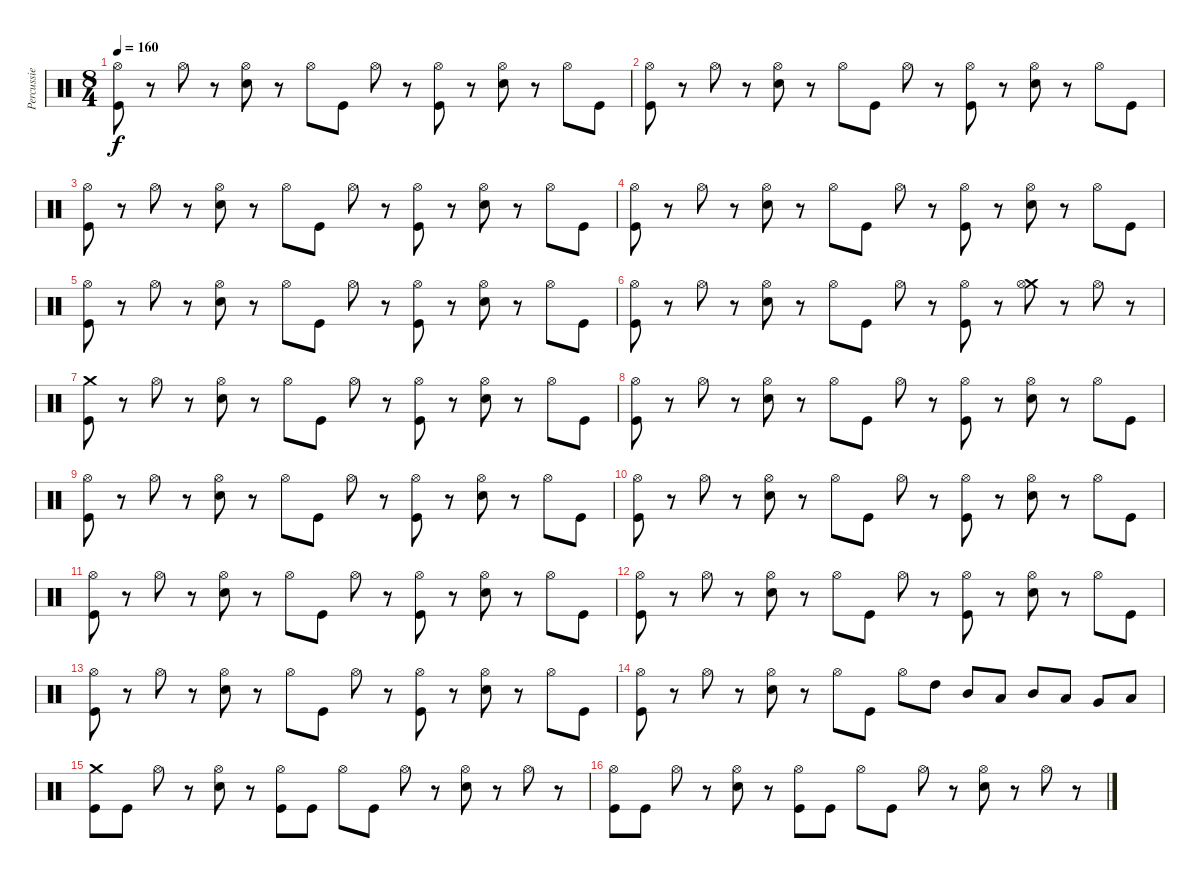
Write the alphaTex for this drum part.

\track ("Percussie" "Percussie") {instrument percussion}
\staff {score}
\articulation defaults
\ts (8 4)
\tempo 160
\clef neutral
\ks c
("Hi-Hat (open)" "Kick (hit)").8{dy f} r.8 "Hi-Hat (open)".8 r.8 ("Electric Snare (hit)" "Hi-Hat (open)").8 r.8 "Hi-Hat (open)".8 "Kick (hit)".8 "Hi-Hat (open)".8 r.8 ("Hi-Hat (open)" "Kick (hit)").8 r.8 ("Electric Snare (hit)" "Hi-Hat (open)").8 r.8 "Hi-Hat (open)".8 "Kick (hit)".8 |
("Hi-Hat (open)" "Kick (hit)").8 r.8 "Hi-Hat (open)".8 r.8 ("Electric Snare (hit)" "Hi-Hat (open)").8 r.8 "Hi-Hat (open)".8 "Kick (hit)".8 "Hi-Hat (open)".8 r.8 ("Hi-Hat (open)" "Kick (hit)").8 r.8 ("Electric Snare (hit)" "Hi-Hat (open)").8 r.8 "Hi-Hat (open)".8 "Kick (hit)".8 |
("Hi-Hat (open)" "Kick (hit)").8 r.8 "Hi-Hat (open)".8 r.8 ("Electric Snare (hit)" "Hi-Hat (open)").8 r.8 "Hi-Hat (open)".8 "Kick (hit)".8 "Hi-Hat (open)".8 r.8 ("Hi-Hat (open)" "Kick (hit)").8 r.8 ("Electric Snare (hit)" "Hi-Hat (open)").8 r.8 "Hi-Hat (open)".8 "Kick (hit)".8 |
("Hi-Hat (open)" "Kick (hit)").8 r.8 "Hi-Hat (open)".8 r.8 ("Electric Snare (hit)" "Hi-Hat (open)").8 r.8 "Hi-Hat (open)".8 "Kick (hit)".8 "Hi-Hat (open)".8 r.8 ("Hi-Hat (open)" "Kick (hit)").8 r.8 ("Electric Snare (hit)" "Hi-Hat (open)").8 r.8 "Hi-Hat (open)".8 "Kick (hit)".8 |
("Hi-Hat (open)" "Kick (hit)").8 r.8 "Hi-Hat (open)".8 r.8 ("Electric Snare (hit)" "Hi-Hat (open)").8 r.8 "Hi-Hat (open)".8 "Kick (hit)".8 "Hi-Hat (open)".8 r.8 ("Hi-Hat (open)" "Kick (hit)").8 r.8 ("Electric Snare (hit)" "Hi-Hat (open)").8 r.8 "Hi-Hat (open)".8 "Kick (hit)".8 |
("Hi-Hat (open)" "Kick (hit)").8 r.8 "Hi-Hat (open)".8 r.8 ("Electric Snare (hit)" "Hi-Hat (open)").8 r.8 "Hi-Hat (open)".8 "Kick (hit)".8 "Hi-Hat (open)".8 r.8 ("Hi-Hat (open)" "Kick (hit)").8 r.8 ("Crash medium (hit)" "Hi-Hat (open)").8 r.8 "Hi-Hat (open)".8 r.8 |
("Crash medium (hit)" "Kick (hit)").8 r.8 "Hi-Hat (open)".8 r.8 ("Electric Snare (hit)" "Hi-Hat (open)").8 r.8 "Hi-Hat (open)".8 "Kick (hit)".8 "Hi-Hat (open)".8 r.8 ("Hi-Hat (open)" "Kick (hit)").8 r.8 ("Electric Snare (hit)" "Hi-Hat (open)").8 r.8 "Hi-Hat (open)".8 "Kick (hit)".8 |
("Hi-Hat (open)" "Kick (hit)").8 r.8 "Hi-Hat (open)".8 r.8 ("Electric Snare (hit)" "Hi-Hat (open)").8 r.8 "Hi-Hat (open)".8 "Kick (hit)".8 "Hi-Hat (open)".8 r.8 ("Hi-Hat (open)" "Kick (hit)").8 r.8 ("Electric Snare (hit)" "Hi-Hat (open)").8 r.8 "Hi-Hat (open)".8 "Kick (hit)".8 |
("Hi-Hat (open)" "Kick (hit)").8 r.8 "Hi-Hat (open)".8 r.8 ("Electric Snare (hit)" "Hi-Hat (open)").8 r.8 "Hi-Hat (open)".8 "Kick (hit)".8 "Hi-Hat (open)".8 r.8 ("Hi-Hat (open)" "Kick (hit)").8 r.8 ("Electric Snare (hit)" "Hi-Hat (open)").8 r.8 "Hi-Hat (open)".8 "Kick (hit)".8 |
("Hi-Hat (open)" "Kick (hit)").8 r.8 "Hi-Hat (open)".8 r.8 ("Electric Snare (hit)" "Hi-Hat (open)").8 r.8 "Hi-Hat (open)".8 "Kick (hit)".8 "Hi-Hat (open)".8 r.8 ("Hi-Hat (open)" "Kick (hit)").8 r.8 ("Electric Snare (hit)" "Hi-Hat (open)").8 r.8 "Hi-Hat (open)".8 "Kick (hit)".8 |
("Hi-Hat (open)" "Kick (hit)").8 r.8 "Hi-Hat (open)".8 r.8 ("Electric Snare (hit)" "Hi-Hat (open)").8 r.8 "Hi-Hat (open)".8 "Kick (hit)".8 "Hi-Hat (open)".8 r.8 ("Hi-Hat (open)" "Kick (hit)").8 r.8 ("Electric Snare (hit)" "Hi-Hat (open)").8 r.8 "Hi-Hat (open)".8 "Kick (hit)".8 |
("Hi-Hat (open)" "Kick (hit)").8 r.8 "Hi-Hat (open)".8 r.8 ("Electric Snare (hit)" "Hi-Hat (open)").8 r.8 "Hi-Hat (open)".8 "Kick (hit)".8 "Hi-Hat (open)".8 r.8 ("Hi-Hat (open)" "Kick (hit)").8 r.8 ("Electric Snare (hit)" "Hi-Hat (open)").8 r.8 "Hi-Hat (open)".8 "Kick (hit)".8 |
("Hi-Hat (open)" "Kick (hit)").8 r.8 "Hi-Hat (open)".8 r.8 ("Electric Snare (hit)" "Hi-Hat (open)").8 r.8 "Hi-Hat (open)".8 "Kick (hit)".8 "Hi-Hat (open)".8 r.8 ("Hi-Hat (open)" "Kick (hit)").8 r.8 ("Electric Snare (hit)" "Hi-Hat (open)").8 r.8 "Hi-Hat (open)".8 "Kick (hit)".8 |
("Hi-Hat (open)" "Kick (hit)").8 r.8 "Hi-Hat (open)".8 r.8 ("Electric Snare (hit)" "Hi-Hat (open)").8 r.8 "Hi-Hat (open)".8 "Kick (hit)".8 "Hi-Hat (open)".8 "High Tom (hit)".8 "Mid Tom (hit)".8 "Low Tom (hit)".8 "Mid Tom (hit)".8 "Low Tom (hit)".8 "Very Low Tom (hit)".8 "Low Floor Tom (hit)".8 |
("Crash medium (hit)" "Kick (hit)").8 "Kick (hit)".8 "Hi-Hat (open)".8 r.8 ("Electric Snare (hit)" "Hi-Hat (open)").8 r.8 ("Hi-Hat (open)" "Kick (hit)").8 "Kick (hit)".8 "Hi-Hat (open)".8 "Kick (hit)".8 "Hi-Hat (open)".8 r.8 ("Electric Snare (hit)" "Hi-Hat (open)").8 r.8 "Hi-Hat (open)".8 r.8 |
("Hi-Hat (open)" "Kick (hit)").8 "Kick (hit)".8 "Hi-Hat (open)".8 r.8 ("Electric Snare (hit)" "Hi-Hat (open)").8 r.8 ("Hi-Hat (open)" "Kick (hit)").8 "Kick (hit)".8 "Hi-Hat (open)".8 "Kick (hit)".8 "Hi-Hat (open)".8 r.8 ("Electric Snare (hit)" "Hi-Hat (open)").8 r.8 "Hi-Hat (open)".8 r.8
